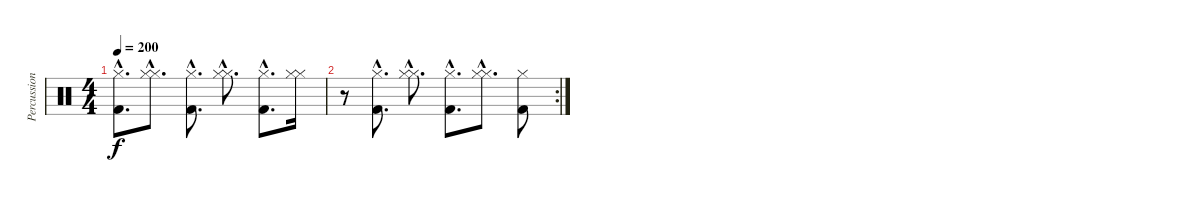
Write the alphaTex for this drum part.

\track ("Percussions" "Percussion") {instrument percussion}
\staff {score}
\articulation defaults
\ts (4 4)
\tempo 200
\clef neutral
\ks c
("Kick (hit) 2"{hac} "Hi-Hat (closed)"{hac}).8{d dy f} ("Hi-Hat (closed)"{hac} "Hi-Hat (closed)"{hac}).8{d} ("Kick (hit) 2"{hac} "Hi-Hat (closed)"{hac}).8{d} ("Hi-Hat (closed)"{hac} "Hi-Hat (closed)"{hac}).8{d} ("Kick (hit) 2"{hac} "Hi-Hat (closed)"{hac}).8{d} ("Hi-Hat (closed)" "Hi-Hat (closed)").16 |
\rc 2
r.8 ("Kick (hit) 2"{hac} "Hi-Hat (closed)"{hac}).8{d} ("Hi-Hat (closed)"{hac} "Hi-Hat (closed)"{hac}).8{d} ("Kick (hit) 2"{hac} "Hi-Hat (closed)"{hac}).8{d} ("Hi-Hat (closed)"{hac} "Hi-Hat (closed)"{hac}).8{d} ("Kick (hit) 2" "Hi-Hat (closed)").8
